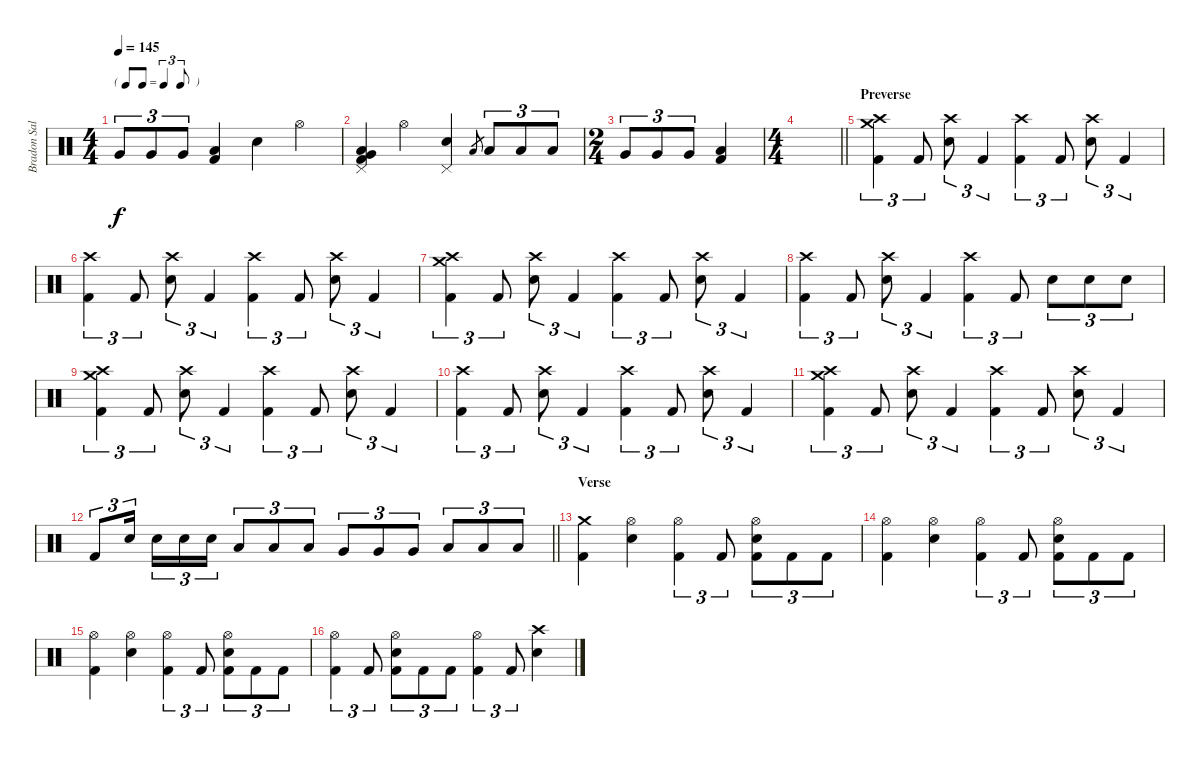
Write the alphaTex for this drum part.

\track ("Bradon Saller" "Bradon Sal") {instrument percussion}
\staff {score}
\articulation defaults
\ts (4 4)
\tf triplet8th
\tempo 145
\clef neutral
\ks c "Very Low Tom (hit)".8{tu (3 2) dy f} "Very Low Tom (hit)".8{tu (3 2)} "Very Low Tom (hit)".8{tu (3 2)}
("Low Floor Tom (hit)" "Kick (hit) 2").4 "Electric Snare (hit)".4 "Hi-Hat (open)".4 |
("Pedal Hi-Hat (hit)" "Very Low Tom (hit)" "Low Floor Tom (hit)" "Kick (hit) 2").4 "Hi-Hat (open)".4 ("Pedal Hi-Hat (hit)" "Electric Snare (hit)").4 "Low Tom (hit)".8{gr} "Low Tom (hit)".8{tu (3 2)} "Low Tom (hit)".8{tu (3 2)} "Low Tom (hit)".8{tu (3 2)} |
\ts (2 4)
"Very Low Tom (hit)".8{tu (3 2)} "Very Low Tom (hit)".8{tu (3 2)} "Very Low Tom (hit)".8{tu (3 2)} ("Low Floor Tom (hit)" "Kick (hit) 2").4 |
\ts (4 4)
\barLineRight lightlight
|
\section ("" "Preverse")
("Crash medium (hit)" "Crash high (hit)" "Kick (hit) 2").4{tu (3 2)} "Kick (hit) 2".8{tu (3 2)} ("Crash high (hit)" "Electric Snare (hit)").8{tu (3 2)} "Kick (hit) 2".4{tu (3 2)} ("Crash high (hit)" "Kick (hit) 2").4{tu (3 2)} "Kick (hit) 2".8{tu (3 2)} ("Crash high (hit)" "Electric Snare (hit)").8{tu (3 2)} "Kick (hit) 2".4{tu (3 2)} |
("Crash high (hit)" "Kick (hit) 2").4{tu (3 2)} "Kick (hit) 2".8{tu (3 2)} ("Crash high (hit)" "Electric Snare (hit)").8{tu (3 2)} "Kick (hit) 2".4{tu (3 2)} ("Crash high (hit)" "Kick (hit) 2").4{tu (3 2)} "Kick (hit) 2".8{tu (3 2)} ("Crash high (hit)" "Electric Snare (hit)").8{tu (3 2)} "Kick (hit) 2".4{tu (3 2)} |
("Crash medium (hit)" "Crash high (hit)" "Kick (hit) 2").4{tu (3 2)} "Kick (hit) 2".8{tu (3 2)} ("Crash high (hit)" "Electric Snare (hit)").8{tu (3 2)} "Kick (hit) 2".4{tu (3 2)} ("Crash high (hit)" "Kick (hit) 2").4{tu (3 2)} "Kick (hit) 2".8{tu (3 2)} ("Crash high (hit)" "Electric Snare (hit)").8{tu (3 2)} "Kick (hit) 2".4{tu (3 2)} |
("Crash high (hit)" "Kick (hit) 2").4{tu (3 2)} "Kick (hit) 2".8{tu (3 2)} ("Crash high (hit)" "Electric Snare (hit)").8{tu (3 2)} "Kick (hit) 2".4{tu (3 2)} ("Crash high (hit)" "Kick (hit) 2").4{tu (3 2)} "Kick (hit) 2".8{tu (3 2)} "Electric Snare (hit)".8{tu (3 2)} "Electric Snare (hit)".8{tu (3 2)} "Electric Snare (hit)".8{tu (3 2)} |
("Crash medium (hit)" "Crash high (hit)" "Kick (hit) 2").4{tu (3 2)} "Kick (hit) 2".8{tu (3 2)} ("Crash high (hit)" "Electric Snare (hit)").8{tu (3 2)} "Kick (hit) 2".4{tu (3 2)} ("Crash high (hit)" "Kick (hit) 2").4{tu (3 2)} "Kick (hit) 2".8{tu (3 2)} ("Crash high (hit)" "Electric Snare (hit)").8{tu (3 2)} "Kick (hit) 2".4{tu (3 2)} |
("Crash high (hit)" "Kick (hit) 2").4{tu (3 2)} "Kick (hit) 2".8{tu (3 2)} ("Crash high (hit)" "Electric Snare (hit)").8{tu (3 2)} "Kick (hit) 2".4{tu (3 2)} ("Crash high (hit)" "Kick (hit) 2").4{tu (3 2)} "Kick (hit) 2".8{tu (3 2)} ("Crash high (hit)" "Electric Snare (hit)").8{tu (3 2)} "Kick (hit) 2".4{tu (3 2)} |
("Crash medium (hit)" "Crash high (hit)" "Kick (hit) 2").4{tu (3 2)} "Kick (hit) 2".8{tu (3 2)} ("Crash high (hit)" "Electric Snare (hit)").8{tu (3 2)} "Kick (hit) 2".4{tu (3 2)} ("Crash high (hit)" "Kick (hit) 2").4{tu (3 2)} "Kick (hit) 2".8{tu (3 2)} ("Crash high (hit)" "Electric Snare (hit)").8{tu (3 2)} "Kick (hit) 2".4{tu (3 2)} |
\barLineRight lightlight "Kick (hit) 2".8{tu (3 2)} "Electric Snare (hit)".16{tu (3 2) beam splitsecondary} "Electric Snare (hit)".16{tu (3 2)} "Electric Snare (hit)".16{tu (3 2)} "Electric Snare (hit)".16{tu (3 2)} "Low Tom (hit)".8{tu (3 2)} "Low Tom (hit)".8{tu (3 2)} "Low Tom (hit)".8{tu (3 2)} "Very Low Tom (hit)".8{tu (3 2)} "Very Low Tom (hit)".8{tu (3 2)} "Very Low Tom (hit)".8{tu (3 2)} "Low Floor Tom (hit)".8{tu (3 2)} "Low Floor Tom (hit)".8{tu (3 2)} "Low Floor Tom (hit)".8{tu (3 2)}
|
\section ("" "Verse")
("Crash medium (hit)" "Kick (hit) 2").4 ("Hi-Hat (open)" "Electric Snare (hit)").4 ("Hi-Hat (open)" "Kick (hit) 2").4{tu (3 2)} "Kick (hit) 2".8{tu (3 2)} ("Hi-Hat (open)" "Electric Snare (hit)" "Kick (hit) 2").8{tu (3 2)} "Kick (hit) 2".8{tu (3 2)} "Kick (hit) 2".8{tu (3 2)} |
("Hi-Hat (open)" "Kick (hit) 2").4 ("Hi-Hat (open)" "Electric Snare (hit)").4 ("Hi-Hat (open)" "Kick (hit) 2").4{tu (3 2)} "Kick (hit) 2".8{tu (3 2)} ("Hi-Hat (open)" "Electric Snare (hit)" "Kick (hit) 2").8{tu (3 2)} "Kick (hit) 2".8{tu (3 2)} "Kick (hit) 2".8{tu (3 2)} |
("Hi-Hat (open)" "Kick (hit) 2").4 ("Hi-Hat (open)" "Electric Snare (hit)").4 ("Hi-Hat (open)" "Kick (hit) 2").4{tu (3 2)} "Kick (hit) 2".8{tu (3 2)} ("Hi-Hat (open)" "Electric Snare (hit)" "Kick (hit) 2").8{tu (3 2)} "Kick (hit) 2".8{tu (3 2)} "Kick (hit) 2".8{tu (3 2)} |
("Hi-Hat (open)" "Kick (hit) 2").4{tu (3 2)} "Kick (hit) 2".8{tu (3 2)} ("Hi-Hat (open)" "Electric Snare (hit)" "Kick (hit) 2").8{tu (3 2)} "Kick (hit) 2".8{tu (3 2)} "Kick (hit) 2".8{tu (3 2)} ("Hi-Hat (open)" "Kick (hit) 2").4{tu (3 2)} "Kick (hit) 2".8{tu (3 2)} ("Crash high (hit)" "Electric Snare (hit)").4
